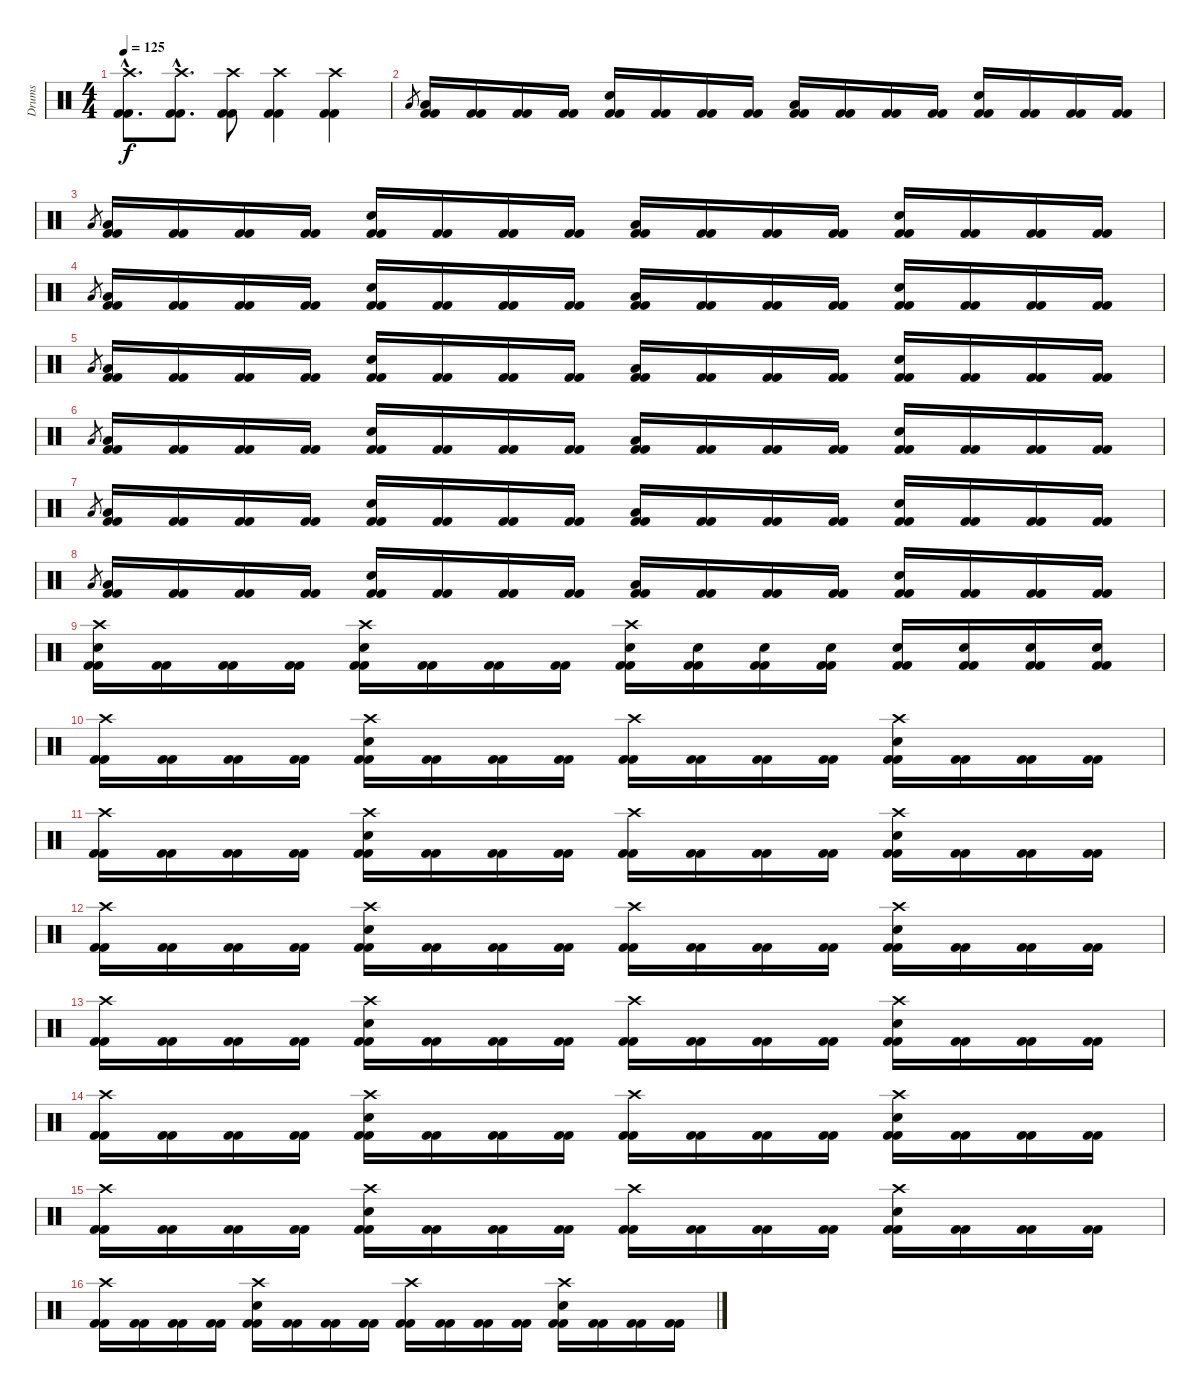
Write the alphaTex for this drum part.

\track ("Drums" "Drums") {instrument percussion}
\staff {score}
\articulation defaults
\ts (4 4)
\tempo 125
\clef neutral
\ks c
("Crash high (hit)"{hac} "Kick (hit) 2"{hac} "Kick (hit) 2"{hac}).8{d dy f} ("Crash high (hit)"{hac} "Kick (hit) 2"{hac} "Kick (hit) 2"{hac}).8{d} ("Crash high (hit)" "Kick (hit) 2" "Kick (hit) 2").8 ("Crash high (hit)" "Kick (hit) 2" "Kick (hit) 2").4 ("Crash high (hit)" "Kick (hit) 2" "Kick (hit) 2").4 |
"Low Floor Tom (hit)".8{gr} ("Low Floor Tom (hit)" "Kick (hit) 2" "Kick (hit) 2").16 ("Kick (hit) 2" "Kick (hit) 2").16 ("Kick (hit) 2" "Kick (hit) 2").16 ("Kick (hit) 2" "Kick (hit) 2").16 ("Snare (hit) 2" "Kick (hit) 2" "Kick (hit) 2").16 ("Kick (hit) 2" "Kick (hit) 2").16 ("Kick (hit) 2" "Kick (hit) 2").16 ("Kick (hit) 2" "Kick (hit) 2").16 ("Low Floor Tom (hit)" "Kick (hit) 2" "Kick (hit) 2").16 ("Kick (hit) 2" "Kick (hit) 2").16 ("Kick (hit) 2" "Kick (hit) 2").16 ("Kick (hit) 2" "Kick (hit) 2").16 ("Snare (hit) 2" "Kick (hit) 2" "Kick (hit) 2").16 ("Kick (hit) 2" "Kick (hit) 2").16 ("Kick (hit) 2" "Kick (hit) 2").16 ("Kick (hit) 2" "Kick (hit) 2").16 |
"Low Floor Tom (hit)".8{gr} ("Low Floor Tom (hit)" "Kick (hit) 2" "Kick (hit) 2").16 ("Kick (hit) 2" "Kick (hit) 2").16 ("Kick (hit) 2" "Kick (hit) 2").16 ("Kick (hit) 2" "Kick (hit) 2").16 ("Snare (hit) 2" "Kick (hit) 2" "Kick (hit) 2").16 ("Kick (hit) 2" "Kick (hit) 2").16 ("Kick (hit) 2" "Kick (hit) 2").16 ("Kick (hit) 2" "Kick (hit) 2").16 ("Low Floor Tom (hit)" "Kick (hit) 2" "Kick (hit) 2").16 ("Kick (hit) 2" "Kick (hit) 2").16 ("Kick (hit) 2" "Kick (hit) 2").16 ("Kick (hit) 2" "Kick (hit) 2").16 ("Snare (hit) 2" "Kick (hit) 2" "Kick (hit) 2").16 ("Kick (hit) 2" "Kick (hit) 2").16 ("Kick (hit) 2" "Kick (hit) 2").16 ("Kick (hit) 2" "Kick (hit) 2").16 |
"Low Floor Tom (hit)".8{gr} ("Low Floor Tom (hit)" "Kick (hit) 2" "Kick (hit) 2").16 ("Kick (hit) 2" "Kick (hit) 2").16 ("Kick (hit) 2" "Kick (hit) 2").16 ("Kick (hit) 2" "Kick (hit) 2").16 ("Snare (hit) 2" "Kick (hit) 2" "Kick (hit) 2").16 ("Kick (hit) 2" "Kick (hit) 2").16 ("Kick (hit) 2" "Kick (hit) 2").16 ("Kick (hit) 2" "Kick (hit) 2").16 ("Low Floor Tom (hit)" "Kick (hit) 2" "Kick (hit) 2").16 ("Kick (hit) 2" "Kick (hit) 2").16 ("Kick (hit) 2" "Kick (hit) 2").16 ("Kick (hit) 2" "Kick (hit) 2").16 ("Snare (hit) 2" "Kick (hit) 2" "Kick (hit) 2").16 ("Kick (hit) 2" "Kick (hit) 2").16 ("Kick (hit) 2" "Kick (hit) 2").16 ("Kick (hit) 2" "Kick (hit) 2").16 |
"Low Floor Tom (hit)".8{gr} ("Low Floor Tom (hit)" "Kick (hit) 2" "Kick (hit) 2").16 ("Kick (hit) 2" "Kick (hit) 2").16 ("Kick (hit) 2" "Kick (hit) 2").16 ("Kick (hit) 2" "Kick (hit) 2").16 ("Snare (hit) 2" "Kick (hit) 2" "Kick (hit) 2").16 ("Kick (hit) 2" "Kick (hit) 2").16 ("Kick (hit) 2" "Kick (hit) 2").16 ("Kick (hit) 2" "Kick (hit) 2").16 ("Low Floor Tom (hit)" "Kick (hit) 2" "Kick (hit) 2").16 ("Kick (hit) 2" "Kick (hit) 2").16 ("Kick (hit) 2" "Kick (hit) 2").16 ("Kick (hit) 2" "Kick (hit) 2").16 ("Snare (hit) 2" "Kick (hit) 2" "Kick (hit) 2").16 ("Kick (hit) 2" "Kick (hit) 2").16 ("Kick (hit) 2" "Kick (hit) 2").16 ("Kick (hit) 2" "Kick (hit) 2").16 |
"Low Floor Tom (hit)".8{gr} ("Low Floor Tom (hit)" "Kick (hit) 2" "Kick (hit) 2").16 ("Kick (hit) 2" "Kick (hit) 2").16 ("Kick (hit) 2" "Kick (hit) 2").16 ("Kick (hit) 2" "Kick (hit) 2").16 ("Snare (hit) 2" "Kick (hit) 2" "Kick (hit) 2").16 ("Kick (hit) 2" "Kick (hit) 2").16 ("Kick (hit) 2" "Kick (hit) 2").16 ("Kick (hit) 2" "Kick (hit) 2").16 ("Low Floor Tom (hit)" "Kick (hit) 2" "Kick (hit) 2").16 ("Kick (hit) 2" "Kick (hit) 2").16 ("Kick (hit) 2" "Kick (hit) 2").16 ("Kick (hit) 2" "Kick (hit) 2").16 ("Snare (hit) 2" "Kick (hit) 2" "Kick (hit) 2").16 ("Kick (hit) 2" "Kick (hit) 2").16 ("Kick (hit) 2" "Kick (hit) 2").16 ("Kick (hit) 2" "Kick (hit) 2").16 |
"Low Floor Tom (hit)".8{gr} ("Low Floor Tom (hit)" "Kick (hit) 2" "Kick (hit) 2").16 ("Kick (hit) 2" "Kick (hit) 2").16 ("Kick (hit) 2" "Kick (hit) 2").16 ("Kick (hit) 2" "Kick (hit) 2").16 ("Snare (hit) 2" "Kick (hit) 2" "Kick (hit) 2").16 ("Kick (hit) 2" "Kick (hit) 2").16 ("Kick (hit) 2" "Kick (hit) 2").16 ("Kick (hit) 2" "Kick (hit) 2").16 ("Low Floor Tom (hit)" "Kick (hit) 2" "Kick (hit) 2").16 ("Kick (hit) 2" "Kick (hit) 2").16 ("Kick (hit) 2" "Kick (hit) 2").16 ("Kick (hit) 2" "Kick (hit) 2").16 ("Snare (hit) 2" "Kick (hit) 2" "Kick (hit) 2").16 ("Kick (hit) 2" "Kick (hit) 2").16 ("Kick (hit) 2" "Kick (hit) 2").16 ("Kick (hit) 2" "Kick (hit) 2").16 |
"Low Floor Tom (hit)".8{gr} ("Low Floor Tom (hit)" "Kick (hit) 2" "Kick (hit) 2").16 ("Kick (hit) 2" "Kick (hit) 2").16 ("Kick (hit) 2" "Kick (hit) 2").16 ("Kick (hit) 2" "Kick (hit) 2").16 ("Snare (hit) 2" "Kick (hit) 2" "Kick (hit) 2").16 ("Kick (hit) 2" "Kick (hit) 2").16 ("Kick (hit) 2" "Kick (hit) 2").16 ("Kick (hit) 2" "Kick (hit) 2").16 ("Low Floor Tom (hit)" "Kick (hit) 2" "Kick (hit) 2").16 ("Kick (hit) 2" "Kick (hit) 2").16 ("Kick (hit) 2" "Kick (hit) 2").16 ("Kick (hit) 2" "Kick (hit) 2").16 ("Snare (hit) 2" "Kick (hit) 2" "Kick (hit) 2").16 ("Kick (hit) 2" "Kick (hit) 2").16 ("Kick (hit) 2" "Kick (hit) 2").16 ("Kick (hit) 2" "Kick (hit) 2").16 |
("Crash high (hit)" "Snare (hit) 2" "Kick (hit) 2" "Kick (hit) 2").16 ("Kick (hit) 2" "Kick (hit) 2").16 ("Kick (hit) 2" "Kick (hit) 2").16 ("Kick (hit) 2" "Kick (hit) 2").16 ("Crash high (hit)" "Snare (hit) 2" "Kick (hit) 2" "Kick (hit) 2").16 ("Kick (hit) 2" "Kick (hit) 2").16 ("Kick (hit) 2" "Kick (hit) 2").16 ("Kick (hit) 2" "Kick (hit) 2").16 ("Crash high (hit)" "Snare (hit) 2" "Kick (hit) 2" "Kick (hit) 2").16 ("Snare (hit) 2" "Kick (hit) 2" "Kick (hit) 2").16 ("Snare (hit) 2" "Kick (hit) 2" "Kick (hit) 2").16 ("Snare (hit) 2" "Kick (hit) 2" "Kick (hit) 2").16 ("Snare (hit) 2" "Kick (hit) 2" "Kick (hit) 2").16 ("Snare (hit) 2" "Kick (hit) 2" "Kick (hit) 2").16 ("Snare (hit) 2" "Kick (hit) 2" "Kick (hit) 2").16 ("Snare (hit) 2" "Kick (hit) 2" "Kick (hit) 2").16 |
("Crash high (hit)" "Kick (hit) 2" "Kick (hit) 2").16 ("Kick (hit) 2" "Kick (hit) 2").16 ("Kick (hit) 2" "Kick (hit) 2").16 ("Kick (hit) 2" "Kick (hit) 2").16 ("Crash high (hit)" "Snare (hit) 2" "Kick (hit) 2" "Kick (hit) 2").16 ("Kick (hit) 2" "Kick (hit) 2").16 ("Kick (hit) 2" "Kick (hit) 2").16 ("Kick (hit) 2" "Kick (hit) 2").16 ("Crash high (hit)" "Kick (hit) 2" "Kick (hit) 2").16 ("Kick (hit) 2" "Kick (hit) 2").16 ("Kick (hit) 2" "Kick (hit) 2").16 ("Kick (hit) 2" "Kick (hit) 2").16 ("Crash high (hit)" "Snare (hit) 2" "Kick (hit) 2" "Kick (hit) 2").16 ("Kick (hit) 2" "Kick (hit) 2").16 ("Kick (hit) 2" "Kick (hit) 2").16 ("Kick (hit) 2" "Kick (hit) 2").16 |
("Crash high (hit)" "Kick (hit) 2" "Kick (hit) 2").16 ("Kick (hit) 2" "Kick (hit) 2").16 ("Kick (hit) 2" "Kick (hit) 2").16 ("Kick (hit) 2" "Kick (hit) 2").16 ("Crash high (hit)" "Snare (hit) 2" "Kick (hit) 2" "Kick (hit) 2").16 ("Kick (hit) 2" "Kick (hit) 2").16 ("Kick (hit) 2" "Kick (hit) 2").16 ("Kick (hit) 2" "Kick (hit) 2").16 ("Crash high (hit)" "Kick (hit) 2" "Kick (hit) 2").16 ("Kick (hit) 2" "Kick (hit) 2").16 ("Kick (hit) 2" "Kick (hit) 2").16 ("Kick (hit) 2" "Kick (hit) 2").16 ("Crash high (hit)" "Snare (hit) 2" "Kick (hit) 2" "Kick (hit) 2").16 ("Kick (hit) 2" "Kick (hit) 2").16 ("Kick (hit) 2" "Kick (hit) 2").16 ("Kick (hit) 2" "Kick (hit) 2").16 |
("Crash high (hit)" "Kick (hit) 2" "Kick (hit) 2").16 ("Kick (hit) 2" "Kick (hit) 2").16 ("Kick (hit) 2" "Kick (hit) 2").16 ("Kick (hit) 2" "Kick (hit) 2").16 ("Crash high (hit)" "Snare (hit) 2" "Kick (hit) 2" "Kick (hit) 2").16 ("Kick (hit) 2" "Kick (hit) 2").16 ("Kick (hit) 2" "Kick (hit) 2").16 ("Kick (hit) 2" "Kick (hit) 2").16 ("Crash high (hit)" "Kick (hit) 2" "Kick (hit) 2").16 ("Kick (hit) 2" "Kick (hit) 2").16 ("Kick (hit) 2" "Kick (hit) 2").16 ("Kick (hit) 2" "Kick (hit) 2").16 ("Crash high (hit)" "Snare (hit) 2" "Kick (hit) 2" "Kick (hit) 2").16 ("Kick (hit) 2" "Kick (hit) 2").16 ("Kick (hit) 2" "Kick (hit) 2").16 ("Kick (hit) 2" "Kick (hit) 2").16 |
("Crash high (hit)" "Kick (hit) 2" "Kick (hit) 2").16 ("Kick (hit) 2" "Kick (hit) 2").16 ("Kick (hit) 2" "Kick (hit) 2").16 ("Kick (hit) 2" "Kick (hit) 2").16 ("Crash high (hit)" "Snare (hit) 2" "Kick (hit) 2" "Kick (hit) 2").16 ("Kick (hit) 2" "Kick (hit) 2").16 ("Kick (hit) 2" "Kick (hit) 2").16 ("Kick (hit) 2" "Kick (hit) 2").16 ("Crash high (hit)" "Kick (hit) 2" "Kick (hit) 2").16 ("Kick (hit) 2" "Kick (hit) 2").16 ("Kick (hit) 2" "Kick (hit) 2").16 ("Kick (hit) 2" "Kick (hit) 2").16 ("Crash high (hit)" "Snare (hit) 2" "Kick (hit) 2" "Kick (hit) 2").16 ("Kick (hit) 2" "Kick (hit) 2").16 ("Kick (hit) 2" "Kick (hit) 2").16 ("Kick (hit) 2" "Kick (hit) 2").16 |
("Crash high (hit)" "Kick (hit) 2" "Kick (hit) 2").16 ("Kick (hit) 2" "Kick (hit) 2").16 ("Kick (hit) 2" "Kick (hit) 2").16 ("Kick (hit) 2" "Kick (hit) 2").16 ("Crash high (hit)" "Snare (hit) 2" "Kick (hit) 2" "Kick (hit) 2").16 ("Kick (hit) 2" "Kick (hit) 2").16 ("Kick (hit) 2" "Kick (hit) 2").16 ("Kick (hit) 2" "Kick (hit) 2").16 ("Crash high (hit)" "Kick (hit) 2" "Kick (hit) 2").16 ("Kick (hit) 2" "Kick (hit) 2").16 ("Kick (hit) 2" "Kick (hit) 2").16 ("Kick (hit) 2" "Kick (hit) 2").16 ("Crash high (hit)" "Snare (hit) 2" "Kick (hit) 2" "Kick (hit) 2").16 ("Kick (hit) 2" "Kick (hit) 2").16 ("Kick (hit) 2" "Kick (hit) 2").16 ("Kick (hit) 2" "Kick (hit) 2").16 |
("Crash high (hit)" "Kick (hit) 2" "Kick (hit) 2").16 ("Kick (hit) 2" "Kick (hit) 2").16 ("Kick (hit) 2" "Kick (hit) 2").16 ("Kick (hit) 2" "Kick (hit) 2").16 ("Crash high (hit)" "Snare (hit) 2" "Kick (hit) 2" "Kick (hit) 2").16 ("Kick (hit) 2" "Kick (hit) 2").16 ("Kick (hit) 2" "Kick (hit) 2").16 ("Kick (hit) 2" "Kick (hit) 2").16 ("Crash high (hit)" "Kick (hit) 2" "Kick (hit) 2").16 ("Kick (hit) 2" "Kick (hit) 2").16 ("Kick (hit) 2" "Kick (hit) 2").16 ("Kick (hit) 2" "Kick (hit) 2").16 ("Crash high (hit)" "Snare (hit) 2" "Kick (hit) 2" "Kick (hit) 2").16 ("Kick (hit) 2" "Kick (hit) 2").16 ("Kick (hit) 2" "Kick (hit) 2").16 ("Kick (hit) 2" "Kick (hit) 2").16 |
("Crash high (hit)" "Kick (hit) 2" "Kick (hit) 2").16 ("Kick (hit) 2" "Kick (hit) 2").16 ("Kick (hit) 2" "Kick (hit) 2").16 ("Kick (hit) 2" "Kick (hit) 2").16 ("Crash high (hit)" "Snare (hit) 2" "Kick (hit) 2" "Kick (hit) 2").16 ("Kick (hit) 2" "Kick (hit) 2").16 ("Kick (hit) 2" "Kick (hit) 2").16 ("Kick (hit) 2" "Kick (hit) 2").16 ("Crash high (hit)" "Kick (hit) 2" "Kick (hit) 2").16 ("Kick (hit) 2" "Kick (hit) 2").16 ("Kick (hit) 2" "Kick (hit) 2").16 ("Kick (hit) 2" "Kick (hit) 2").16 ("Crash high (hit)" "Snare (hit) 2" "Kick (hit) 2" "Kick (hit) 2").16 ("Kick (hit) 2" "Kick (hit) 2").16 ("Kick (hit) 2" "Kick (hit) 2").16 ("Kick (hit) 2" "Kick (hit) 2").16
